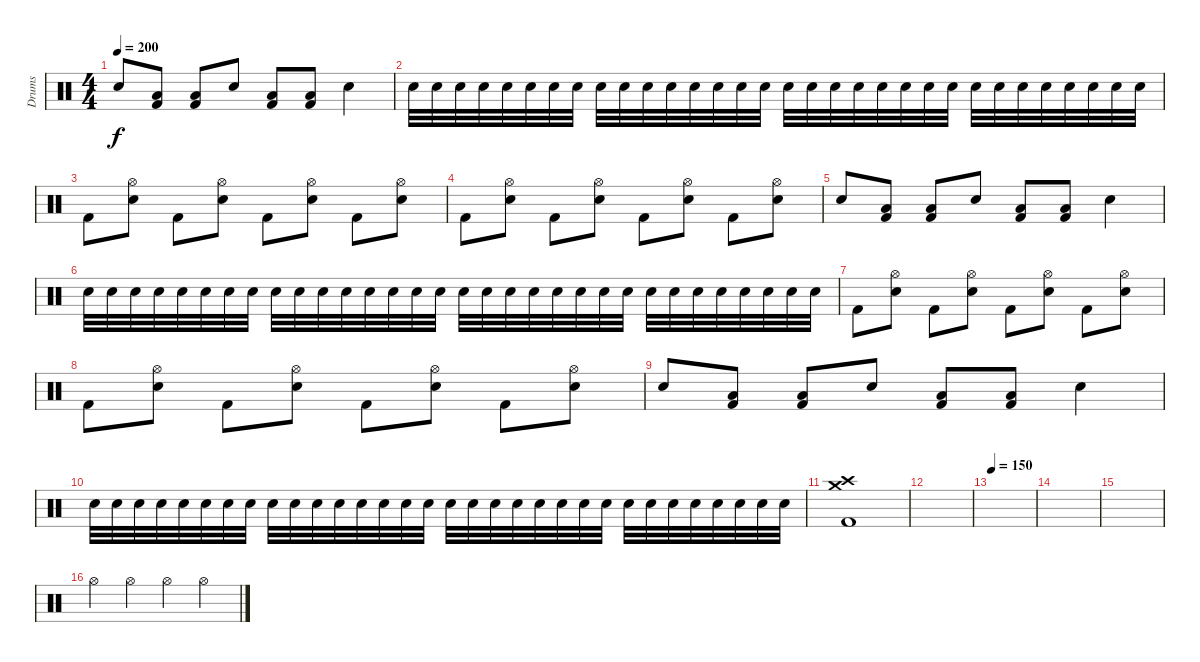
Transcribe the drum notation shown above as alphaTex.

\track ("Drums" "Drums") {instrument percussion}
\staff {score}
\articulation defaults
\ts (4 4)
\tempo 200
\clef neutral
\ks c "Electric Snare (hit)".8{dy f}
("Low Floor Tom (hit)" "Kick (hit) 2").8 ("Low Floor Tom (hit)" "Kick (hit) 2").8 "Electric Snare (hit)".8 ("Low Floor Tom (hit)" "Kick (hit) 2").8 ("Low Floor Tom (hit)" "Kick (hit) 2").8 "Electric Snare (hit)".4 |
"Electric Snare (hit)".32 "Electric Snare (hit)".32 "Electric Snare (hit)".32 "Electric Snare (hit)".32 "Electric Snare (hit)".32 "Electric Snare (hit)".32 "Electric Snare (hit)".32 "Electric Snare (hit)".32 "Electric Snare (hit)".32 "Electric Snare (hit)".32 "Electric Snare (hit)".32 "Electric Snare (hit)".32 "Electric Snare (hit)".32 "Electric Snare (hit)".32 "Electric Snare (hit)".32 "Electric Snare (hit)".32 "Electric Snare (hit)".32 "Electric Snare (hit)".32 "Electric Snare (hit)".32 "Electric Snare (hit)".32 "Electric Snare (hit)".32 "Electric Snare (hit)".32 "Electric Snare (hit)".32 "Electric Snare (hit)".32 "Electric Snare (hit)".32 "Electric Snare (hit)".32 "Electric Snare (hit)".32 "Electric Snare (hit)".32 "Electric Snare (hit)".32 "Electric Snare (hit)".32 "Electric Snare (hit)".32 "Electric Snare (hit)".32 |
"Kick (hit) 2".8 ("Hi-Hat (open)" "Electric Snare (hit)").8 "Kick (hit) 2".8 ("Hi-Hat (open)" "Electric Snare (hit)").8 "Kick (hit) 2".8 ("Hi-Hat (open)" "Electric Snare (hit)").8 "Kick (hit) 2".8 ("Hi-Hat (open)" "Electric Snare (hit)").8 |
"Kick (hit) 2".8 ("Hi-Hat (open)" "Electric Snare (hit)").8 "Kick (hit) 2".8 ("Hi-Hat (open)" "Electric Snare (hit)").8 "Kick (hit) 2".8 ("Hi-Hat (open)" "Electric Snare (hit)").8 "Kick (hit) 2".8 ("Hi-Hat (open)" "Electric Snare (hit)").8 |
"Electric Snare (hit)".8 ("Low Floor Tom (hit)" "Kick (hit) 2").8 ("Low Floor Tom (hit)" "Kick (hit) 2").8 "Electric Snare (hit)".8 ("Low Floor Tom (hit)" "Kick (hit) 2").8 ("Low Floor Tom (hit)" "Kick (hit) 2").8 "Electric Snare (hit)".4 |
"Electric Snare (hit)".32 "Electric Snare (hit)".32 "Electric Snare (hit)".32 "Electric Snare (hit)".32 "Electric Snare (hit)".32 "Electric Snare (hit)".32 "Electric Snare (hit)".32 "Electric Snare (hit)".32 "Electric Snare (hit)".32 "Electric Snare (hit)".32 "Electric Snare (hit)".32 "Electric Snare (hit)".32 "Electric Snare (hit)".32 "Electric Snare (hit)".32 "Electric Snare (hit)".32 "Electric Snare (hit)".32 "Electric Snare (hit)".32 "Electric Snare (hit)".32 "Electric Snare (hit)".32 "Electric Snare (hit)".32 "Electric Snare (hit)".32 "Electric Snare (hit)".32 "Electric Snare (hit)".32 "Electric Snare (hit)".32 "Electric Snare (hit)".32 "Electric Snare (hit)".32 "Electric Snare (hit)".32 "Electric Snare (hit)".32 "Electric Snare (hit)".32 "Electric Snare (hit)".32 "Electric Snare (hit)".32 "Electric Snare (hit)".32 |
"Kick (hit) 2".8 ("Hi-Hat (open)" "Electric Snare (hit)").8 "Kick (hit) 2".8 ("Hi-Hat (open)" "Electric Snare (hit)").8 "Kick (hit) 2".8 ("Hi-Hat (open)" "Electric Snare (hit)").8 "Kick (hit) 2".8 ("Hi-Hat (open)" "Electric Snare (hit)").8 |
"Kick (hit) 2".8 ("Hi-Hat (open)" "Electric Snare (hit)").8 "Kick (hit) 2".8 ("Hi-Hat (open)" "Electric Snare (hit)").8 "Kick (hit) 2".8 ("Hi-Hat (open)" "Electric Snare (hit)").8 "Kick (hit) 2".8 ("Hi-Hat (open)" "Electric Snare (hit)").8 |
"Electric Snare (hit)".8 ("Low Floor Tom (hit)" "Kick (hit) 2").8 ("Low Floor Tom (hit)" "Kick (hit) 2").8 "Electric Snare (hit)".8 ("Low Floor Tom (hit)" "Kick (hit) 2").8 ("Low Floor Tom (hit)" "Kick (hit) 2").8 "Electric Snare (hit)".4 |
"Electric Snare (hit)".32 "Electric Snare (hit)".32 "Electric Snare (hit)".32 "Electric Snare (hit)".32 "Electric Snare (hit)".32 "Electric Snare (hit)".32 "Electric Snare (hit)".32 "Electric Snare (hit)".32 "Electric Snare (hit)".32 "Electric Snare (hit)".32 "Electric Snare (hit)".32 "Electric Snare (hit)".32 "Electric Snare (hit)".32 "Electric Snare (hit)".32 "Electric Snare (hit)".32 "Electric Snare (hit)".32 "Electric Snare (hit)".32 "Electric Snare (hit)".32 "Electric Snare (hit)".32 "Electric Snare (hit)".32 "Electric Snare (hit)".32 "Electric Snare (hit)".32 "Electric Snare (hit)".32 "Electric Snare (hit)".32 "Electric Snare (hit)".32 "Electric Snare (hit)".32 "Electric Snare (hit)".32 "Electric Snare (hit)".32 "Electric Snare (hit)".32 "Electric Snare (hit)".32 "Electric Snare (hit)".32 "Electric Snare (hit)".32 |
("Crash medium (hit)" "Crash high (hit)" "Kick (hit) 2").1 |
|
\tempo 150
|
|
|
"Hi-Hat (open)".4 "Hi-Hat (open)".4 "Hi-Hat (open)".4 "Hi-Hat (open)".4
